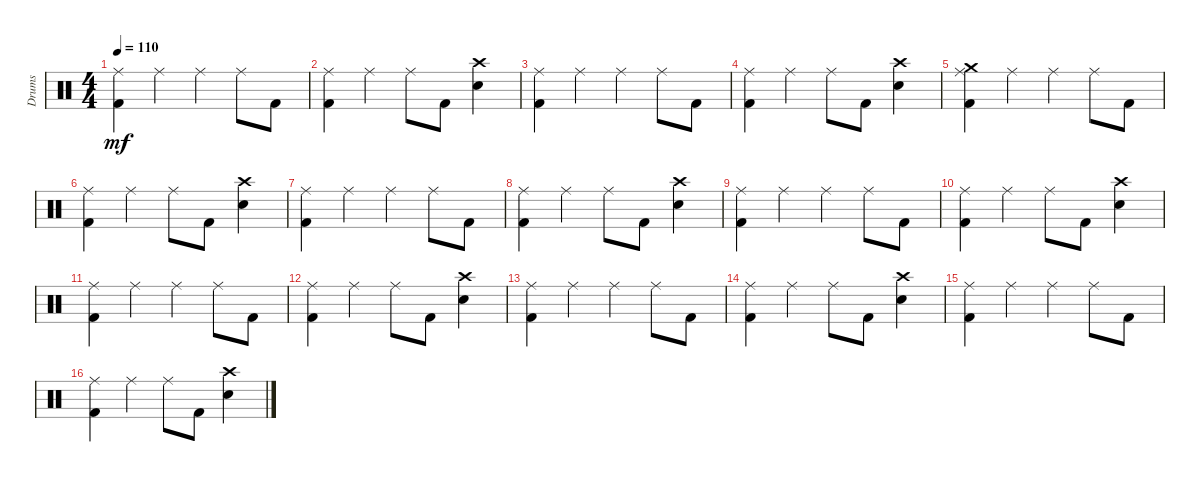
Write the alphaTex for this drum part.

\track ("Drums" "Drums") {instrument percussion}
\staff {score}
\articulation defaults
\ts (4 4)
\tempo 110
\clef neutral
\ks c
("Ride (middle)" "Kick (hit) 2").4{dy mf} "Ride (middle)".4 "Ride (middle)".4 "Ride (middle)".8 "Kick (hit) 2".8 |
("Ride (middle)" "Kick (hit) 2").4 "Ride (middle)".4 "Ride (middle)".8 "Kick (hit) 2".8 ("Crash high (hit)" "Electric Snare (hit)").4 |
("Ride (middle)" "Kick (hit) 2").4 "Ride (middle)".4 "Ride (middle)".4 "Ride (middle)".8 "Kick (hit) 2".8 |
("Ride (middle)" "Kick (hit) 2").4 "Ride (middle)".4 "Ride (middle)".8 "Kick (hit) 2".8 ("Crash high (hit)" "Electric Snare (hit)").4 |
("Crash medium (hit)" "Ride (middle)" "Kick (hit) 2").4 "Ride (middle)".4 "Ride (middle)".4 "Ride (middle)".8 "Kick (hit) 2".8 |
("Ride (middle)" "Kick (hit) 2").4 "Ride (middle)".4 "Ride (middle)".8 "Kick (hit) 2".8 ("Crash high (hit)" "Electric Snare (hit)").4 |
("Ride (middle)" "Kick (hit) 2").4 "Ride (middle)".4 "Ride (middle)".4 "Ride (middle)".8 "Kick (hit) 2".8 |
("Ride (middle)" "Kick (hit) 2").4 "Ride (middle)".4 "Ride (middle)".8 "Kick (hit) 2".8 ("Crash high (hit)" "Electric Snare (hit)").4 |
("Ride (middle)" "Kick (hit) 2").4 "Ride (middle)".4 "Ride (middle)".4 "Ride (middle)".8 "Kick (hit) 2".8 |
("Ride (middle)" "Kick (hit) 2").4 "Ride (middle)".4 "Ride (middle)".8 "Kick (hit) 2".8 ("Crash high (hit)" "Electric Snare (hit)").4 |
("Ride (middle)" "Kick (hit) 2").4 "Ride (middle)".4 "Ride (middle)".4 "Ride (middle)".8 "Kick (hit) 2".8 |
("Ride (middle)" "Kick (hit) 2").4 "Ride (middle)".4 "Ride (middle)".8 "Kick (hit) 2".8 ("Crash high (hit)" "Electric Snare (hit)").4 |
("Ride (middle)" "Kick (hit) 2").4 "Ride (middle)".4 "Ride (middle)".4 "Ride (middle)".8 "Kick (hit) 2".8 |
("Ride (middle)" "Kick (hit) 2").4 "Ride (middle)".4 "Ride (middle)".8 "Kick (hit) 2".8 ("Crash high (hit)" "Electric Snare (hit)").4 |
("Ride (middle)" "Kick (hit) 2").4 "Ride (middle)".4 "Ride (middle)".4 "Ride (middle)".8 "Kick (hit) 2".8 |
("Ride (middle)" "Kick (hit) 2").4 "Ride (middle)".4 "Ride (middle)".8 "Kick (hit) 2".8 ("Crash high (hit)" "Electric Snare (hit)").4
